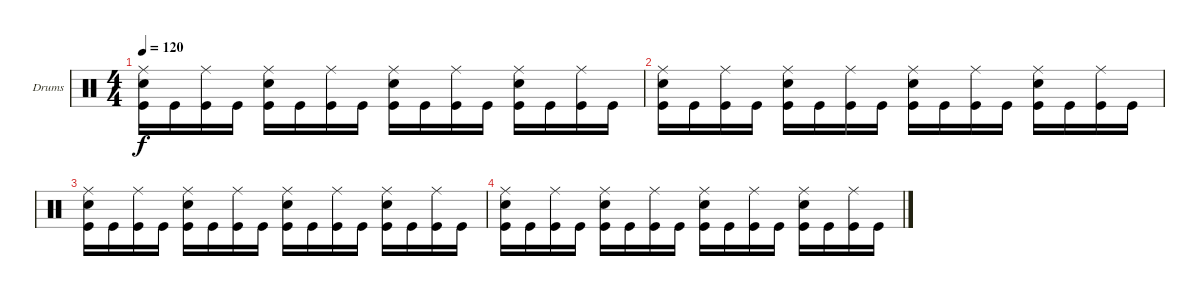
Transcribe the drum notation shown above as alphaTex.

\bracketExtendMode groupsimilarinstruments
\firstSystemTrackNameOrientation horizontal
\otherSystemsTrackNameOrientation horizontal
\track ("Drumkit" "Drums") {instrument percussion}
\staff {score}
\articulation defaults
\ts (4 4)
\tempo 120
\clef neutral
\ks c
("Ride (middle)" "Snare (hit) 2" "Kick (hit)").16{dy f} "Kick (hit)".16 ("Ride (middle)" "Kick (hit)").16 "Kick (hit)".16 ("Ride (middle)" "Snare (hit) 2" "Kick (hit)").16 "Kick (hit)".16 ("Ride (middle)" "Kick (hit)").16 "Kick (hit)".16 ("Ride (middle)" "Snare (hit) 2" "Kick (hit)").16 "Kick (hit)".16 ("Ride (middle)" "Kick (hit)").16 "Kick (hit)".16 ("Ride (middle)" "Snare (hit) 2" "Kick (hit)").16 "Kick (hit)".16 ("Ride (middle)" "Kick (hit)").16 "Kick (hit)".16 |
("Ride (middle)" "Snare (hit) 2" "Kick (hit)").16 "Kick (hit)".16 ("Ride (middle)" "Kick (hit)").16 "Kick (hit)".16 ("Ride (middle)" "Snare (hit) 2" "Kick (hit)").16 "Kick (hit)".16 ("Ride (middle)" "Kick (hit)").16 "Kick (hit)".16 ("Ride (middle)" "Snare (hit) 2" "Kick (hit)").16 "Kick (hit)".16 ("Ride (middle)" "Kick (hit)").16 "Kick (hit)".16 ("Ride (middle)" "Snare (hit) 2" "Kick (hit)").16 "Kick (hit)".16 ("Ride (middle)" "Kick (hit)").16 "Kick (hit)".16 |
("Ride (middle)" "Snare (hit) 2" "Kick (hit)").16 "Kick (hit)".16 ("Ride (middle)" "Kick (hit)").16 "Kick (hit)".16 ("Ride (middle)" "Snare (hit) 2" "Kick (hit)").16 "Kick (hit)".16 ("Ride (middle)" "Kick (hit)").16 "Kick (hit)".16 ("Ride (middle)" "Snare (hit) 2" "Kick (hit)").16 "Kick (hit)".16 ("Ride (middle)" "Kick (hit)").16 "Kick (hit)".16 ("Ride (middle)" "Snare (hit) 2" "Kick (hit)").16 "Kick (hit)".16 ("Ride (middle)" "Kick (hit)").16 "Kick (hit)".16 |
("Ride (middle)" "Snare (hit) 2" "Kick (hit)").16 "Kick (hit)".16 ("Ride (middle)" "Kick (hit)").16 "Kick (hit)".16 ("Ride (middle)" "Snare (hit) 2" "Kick (hit)").16 "Kick (hit)".16 ("Ride (middle)" "Kick (hit)").16 "Kick (hit)".16 ("Ride (middle)" "Snare (hit) 2" "Kick (hit)").16 "Kick (hit)".16 ("Ride (middle)" "Kick (hit)").16 "Kick (hit)".16 ("Ride (middle)" "Snare (hit) 2" "Kick (hit)").16 "Kick (hit)".16 ("Ride (middle)" "Kick (hit)").16 "Kick (hit)".16
